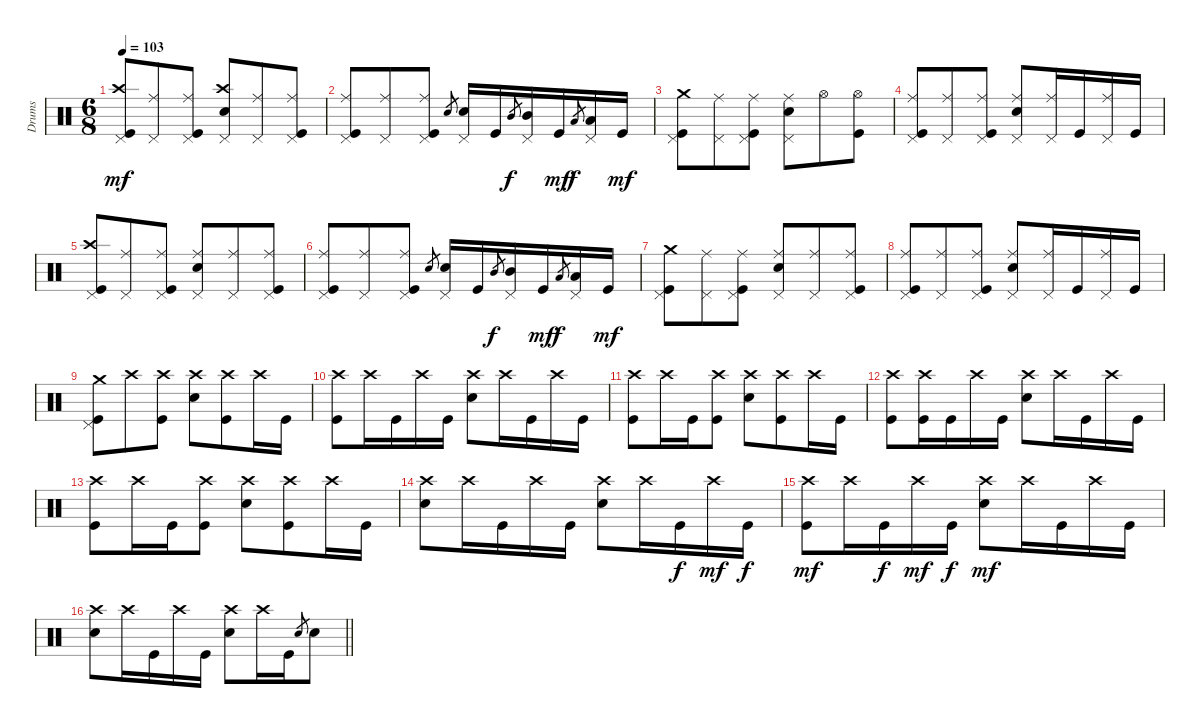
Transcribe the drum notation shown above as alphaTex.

\track ("Drums" "Drums") {instrument percussion}
\staff {score}
\articulation defaults
\ts (6 8)
\tempo 103
\clef neutral
\ks c
("Pedal Hi-Hat (hit)" "Crash high (hit)" "Kick (hit)").8{dy mf} ("Pedal Hi-Hat (hit)" "Ride (middle)").8 ("Pedal Hi-Hat (hit)" "Ride (middle)" "Kick (hit)").8 ("Pedal Hi-Hat (hit)" "Crash high (hit)" "Snare (hit) 2").8 ("Pedal Hi-Hat (hit)" "Ride (middle)").8 ("Pedal Hi-Hat (hit)" "Ride (middle)" "Kick (hit)").8 |
("Pedal Hi-Hat (hit)" "Ride (middle)" "Kick (hit)").8 ("Pedal Hi-Hat (hit)" "Ride (middle)").8 ("Pedal Hi-Hat (hit)" "Ride (middle)" "Kick (hit)").8 "Snare (hit) 2".8{gr} ("Pedal Hi-Hat (hit)" "Snare (hit) 2").16 "Kick (hit)".16 "Mid Tom (hit)".8{gr dy f} ("Pedal Hi-Hat (hit)" "Mid Tom (hit)").16 "Kick (hit)".16{dy mf} "Low Tom (hit)".8{gr dy f} ("Pedal Hi-Hat (hit)" "Low Tom (hit)").16 "Kick (hit)".16{dy mf} |
("Pedal Hi-Hat (hit)" "Crash medium (hit)" "Kick (hit)").8 ("Pedal Hi-Hat (hit)" "Ride (middle)").8 ("Pedal Hi-Hat (hit)" "Ride (middle)" "Kick (hit)").8 ("Pedal Hi-Hat (hit)" "Ride (middle)" "Snare (hit) 2").8 "Hi-Hat (open)".8 ("Hi-Hat (open)" "Kick (hit)").8 |
("Pedal Hi-Hat (hit)" "Ride (middle)" "Kick (hit)").8 ("Pedal Hi-Hat (hit)" "Ride (middle)").8 ("Pedal Hi-Hat (hit)" "Ride (middle)" "Kick (hit)").8 ("Pedal Hi-Hat (hit)" "Ride (middle)" "Snare (hit) 2").8 ("Pedal Hi-Hat (hit)" "Ride (middle)").16 "Kick (hit)".16 ("Pedal Hi-Hat (hit)" "Ride (middle)").16 "Kick (hit)".16 |
("Pedal Hi-Hat (hit)" "Crash high (hit)" "Kick (hit)").8 ("Pedal Hi-Hat (hit)" "Ride (middle)").8 ("Pedal Hi-Hat (hit)" "Ride (middle)" "Kick (hit)").8 ("Pedal Hi-Hat (hit)" "Ride (middle)" "Snare (hit) 2").8 ("Pedal Hi-Hat (hit)" "Ride (middle)").8 ("Pedal Hi-Hat (hit)" "Ride (middle)" "Kick (hit)").8 |
("Pedal Hi-Hat (hit)" "Ride (middle)" "Kick (hit)").8 ("Pedal Hi-Hat (hit)" "Ride (middle)").8 ("Pedal Hi-Hat (hit)" "Ride (middle)" "Kick (hit)").8 "Snare (hit) 2".8{gr} ("Pedal Hi-Hat (hit)" "Snare (hit) 2").16 "Kick (hit)".16 "Mid Tom (hit)".8{gr dy f} ("Pedal Hi-Hat (hit)" "Mid Tom (hit)").16 "Kick (hit)".16{dy mf} "Low Tom (hit)".8{gr dy f} ("Pedal Hi-Hat (hit)" "Low Tom (hit)").16 "Kick (hit)".16{dy mf} |
("Pedal Hi-Hat (hit)" "Crash medium (hit)" "Kick (hit)").8 ("Pedal Hi-Hat (hit)" "Ride (middle)").8 ("Pedal Hi-Hat (hit)" "Ride (middle)" "Kick (hit)").8 ("Pedal Hi-Hat (hit)" "Ride (middle)" "Snare (hit) 2").8 ("Pedal Hi-Hat (hit)" "Ride (middle)").8 ("Pedal Hi-Hat (hit)" "Ride (middle)" "Kick (hit)").8 |
("Pedal Hi-Hat (hit)" "Ride (middle)" "Kick (hit)").8 ("Pedal Hi-Hat (hit)" "Ride (middle)").8 ("Pedal Hi-Hat (hit)" "Ride (middle)" "Kick (hit)").8 ("Pedal Hi-Hat (hit)" "Ride (middle)" "Snare (hit) 2").8 ("Pedal Hi-Hat (hit)" "Ride (middle)").16 "Kick (hit)".16 ("Pedal Hi-Hat (hit)" "Ride (middle)").16 "Kick (hit)".16 |
("Pedal Hi-Hat (hit)" "Crash medium (hit)" "Kick (hit)").8 "Crash high (hit)".8 ("Crash high (hit)" "Kick (hit)").8 ("Crash high (hit)" "Snare (hit) 2").8 ("Crash high (hit)" "Kick (hit)").8 "Crash high (hit)".16 "Kick (hit)".16 |
("Crash high (hit)" "Kick (hit)").8 "Crash high (hit)".16 "Kick (hit)".16 "Crash high (hit)".16 "Kick (hit)".16 ("Crash high (hit)" "Snare (hit) 2").8 "Crash high (hit)".16 "Kick (hit)".16 "Crash high (hit)".16 "Kick (hit)".16 |
("Crash high (hit)" "Kick (hit)").8 "Crash high (hit)".16 "Kick (hit)".16 ("Crash high (hit)" "Kick (hit)").8 ("Crash high (hit)" "Snare (hit) 2").8 ("Crash high (hit)" "Kick (hit)").8 "Crash high (hit)".16 "Kick (hit)".16 |
("Crash high (hit)" "Kick (hit)").8 ("Kick (hit)" "Crash high (hit)").16 "Kick (hit)".16 "Crash high (hit)".16 "Kick (hit)".16 ("Crash high (hit)" "Snare (hit) 2").8 "Crash high (hit)".16 "Kick (hit)".16 "Crash high (hit)".16 "Kick (hit)".16 |
("Crash high (hit)" "Kick (hit)").8 "Crash high (hit)".16 "Kick (hit)".16 ("Kick (hit)" "Crash high (hit)").8 ("Crash high (hit)" "Snare (hit) 2").8 ("Kick (hit)" "Crash high (hit)").8 "Crash high (hit)".16 "Kick (hit)".16 |
("Crash high (hit)" "Snare (hit) 2").8 "Crash high (hit)".16 "Kick (hit)".16 "Crash high (hit)".16 "Kick (hit)".16 ("Crash high (hit)" "Snare (hit) 2").8 "Crash high (hit)".16 "Kick (hit)".16{dy f} "Crash high (hit)".16{dy mf} "Kick (hit)".16{dy f} |
("Crash high (hit)" "Kick (hit)").8{dy mf} "Crash high (hit)".16 "Kick (hit)".16{dy f} "Crash high (hit)".16{dy mf} "Kick (hit)".16{dy f} ("Crash high (hit)" "Snare (hit) 2").8{dy mf} "Crash high (hit)".16 "Kick (hit)".16 "Crash high (hit)".16 "Kick (hit)".16 |
\barLineRight lightlight
("Crash high (hit)" "Snare (hit) 2").8 "Crash high (hit)".16 "Kick (hit)".16 "Crash high (hit)".16 "Kick (hit)".16 ("Crash high (hit)" "Snare (hit) 2").8 "Crash high (hit)".16 "Kick (hit)".16 "Snare (hit) 2".8{gr} "Snare (hit) 2".8
